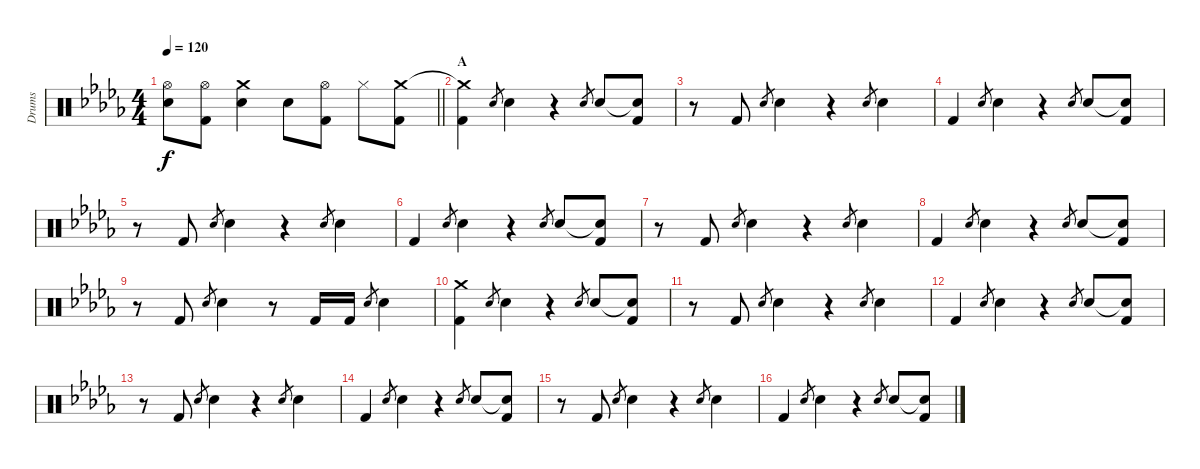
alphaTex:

\track ("Drums" "Drums") {instrument percussion}
\staff {score}
\articulation defaults
\ts (4 4)
\tempo 120
\clef neutral
\barLineRight lightlight
\ks db
("Hi-Hat (open)" "Electric Snare (hit)").8{dy f} ("Hi-Hat (open)" "Kick (hit) 2").8 ("Crash medium (hit)" "Electric Snare (hit)").4 "Electric Snare (hit)".8 ("Hi-Hat (open)" "Kick (hit) 2").8 "Hi-Hat (closed)".8 ("Crash medium (hit)" "Kick (hit) 2").8 |
\section ("" "A")
("Crash medium (hit)"{t} "Kick (hit) 2").4 "Electric Snare (hit)".8{gr} "Electric Snare (hit)".4 r.4 "Electric Snare (hit)".8{gr} "Electric Snare (hit)".8 ("Snare (hit)"{t} "Kick (hit) 2").8 |
r.8 "Kick (hit) 2".8 "Electric Snare (hit)".8{gr} "Electric Snare (hit)".4 r.4 "Electric Snare (hit)".8{gr} "Electric Snare (hit)".4 |
"Kick (hit) 2".4 "Electric Snare (hit)".8{gr} "Electric Snare (hit)".4 r.4 "Electric Snare (hit)".8{gr} "Electric Snare (hit)".8 ("Snare (hit)"{t} "Kick (hit) 2").8 |
r.8 "Kick (hit) 2".8 "Electric Snare (hit)".8{gr} "Electric Snare (hit)".4 r.4 "Electric Snare (hit)".8{gr} "Electric Snare (hit)".4 |
"Kick (hit) 2".4 "Electric Snare (hit)".8{gr} "Electric Snare (hit)".4 r.4 "Electric Snare (hit)".8{gr} "Electric Snare (hit)".8 ("Snare (hit)"{t} "Kick (hit) 2").8 |
r.8 "Kick (hit) 2".8 "Electric Snare (hit)".8{gr} "Electric Snare (hit)".4 r.4 "Electric Snare (hit)".8{gr} "Electric Snare (hit)".4 |
"Kick (hit) 2".4 "Electric Snare (hit)".8{gr} "Electric Snare (hit)".4 r.4 "Electric Snare (hit)".8{gr} "Electric Snare (hit)".8 ("Snare (hit)"{t} "Kick (hit) 2").8 |
r.8 "Kick (hit) 2".8 "Electric Snare (hit)".8{gr} "Electric Snare (hit)".4 r.8 "Kick (hit) 2".16 "Kick (hit) 2".16 "Electric Snare (hit)".8{gr} "Electric Snare (hit)".4 |
("Crash medium (hit)" "Kick (hit) 2").4 "Electric Snare (hit)".8{gr} "Electric Snare (hit)".4 r.4 "Electric Snare (hit)".8{gr} "Electric Snare (hit)".8 ("Snare (hit)"{t} "Kick (hit) 2").8 |
r.8 "Kick (hit) 2".8 "Electric Snare (hit)".8{gr} "Electric Snare (hit)".4 r.4 "Electric Snare (hit)".8{gr} "Electric Snare (hit)".4 |
"Kick (hit) 2".4 "Electric Snare (hit)".8{gr} "Electric Snare (hit)".4 r.4 "Electric Snare (hit)".8{gr} "Electric Snare (hit)".8 ("Snare (hit)"{t} "Kick (hit) 2").8 |
r.8 "Kick (hit) 2".8 "Electric Snare (hit)".8{gr} "Electric Snare (hit)".4 r.4 "Electric Snare (hit)".8{gr} "Electric Snare (hit)".4 |
"Kick (hit) 2".4 "Electric Snare (hit)".8{gr} "Electric Snare (hit)".4 r.4 "Electric Snare (hit)".8{gr} "Electric Snare (hit)".8 ("Snare (hit)"{t} "Kick (hit) 2").8 |
r.8 "Kick (hit) 2".8 "Electric Snare (hit)".8{gr} "Electric Snare (hit)".4 r.4 "Electric Snare (hit)".8{gr} "Electric Snare (hit)".4 |
"Kick (hit) 2".4 "Electric Snare (hit)".8{gr} "Electric Snare (hit)".4 r.4 "Electric Snare (hit)".8{gr} "Electric Snare (hit)".8 ("Snare (hit)"{t} "Kick (hit) 2").8
